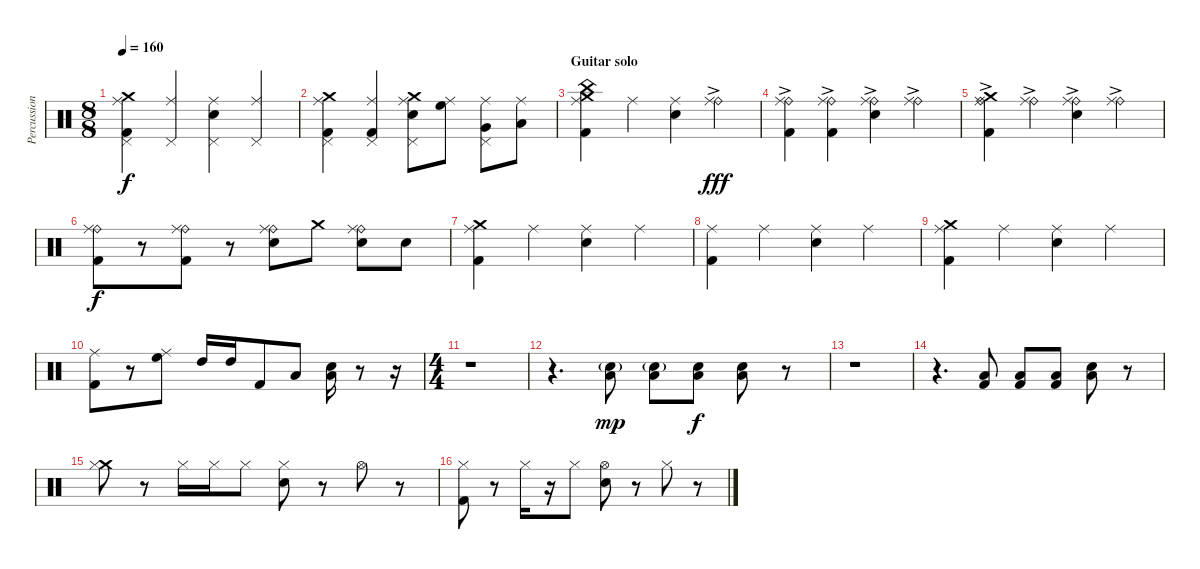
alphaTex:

\track ("Percussion" "Percussion") {instrument percussion}
\staff {score}
\articulation defaults
\ts (8 8)
\tempo 160
\clef neutral
\ks c
("Ride (middle)" "Kick (hit) 2" "Pedal Hi-Hat (hit)" "Crash medium (hit)").4{dy f} ("Ride (middle)" "Pedal Hi-Hat (hit)").4 ("Ride (middle)" "Electric Snare (hit)" "Pedal Hi-Hat (hit)").4 ("Ride (middle)" "Pedal Hi-Hat (hit)").4 |
("Ride (middle)" "Kick (hit) 2" "Pedal Hi-Hat (hit)" "Crash medium (hit)").4 ("Ride (middle)" "Kick (hit) 2" "Pedal Hi-Hat (hit)").4 ("Ride (middle)" "Electric Snare (hit)" "Pedal Hi-Hat (hit)" "Crash medium (hit)").8 ("Ride (middle)" "High Floor Tom (hit)").8 ("Ride (middle)" "Very Low Tom (hit)" "Pedal Hi-Hat (hit)").8 ("Ride (middle)" "Low Tom (hit)").8 |
\section ("" "Guitar solo")
("Kick (hit) 2" "Ride (middle)" "Crash medium (hit)" "China (hit)").4 "Ride (middle)".4 ("Electric Snare (hit)" "Ride (middle)").4 ("Ride (bell)"{ac} "Ride (middle)").4{dy fff} |
("Ride (bell)"{ac} "Kick (hit) 2" "Ride (middle)").4 ("Ride (bell)"{ac} "Kick (hit) 2" "Ride (middle)").4 ("Ride (bell)"{ac} "Electric Snare (hit)" "Ride (middle)").4 ("Ride (bell)"{ac} "Ride (middle)").4 |
("Ride (bell)"{ac} "Kick (hit) 2" "Ride (middle)" "Crash medium (hit)").4 ("Ride (bell)"{ac} "Ride (middle)").4 ("Ride (bell)"{ac} "Electric Snare (hit)" "Ride (middle)").4 ("Ride (bell)"{ac} "Ride (middle)").4 |
("Ride (bell)" "Kick (hit) 2" "Ride (middle)").8{dy f} r.8 ("Ride (bell)" "Kick (hit) 2" "Ride (middle)").8 r.8 ("Ride (bell)" "Electric Snare (hit)" "Ride (middle)").8 "Crash medium (hit)".8 ("Ride (bell)" "Electric Snare (hit)" "Ride (middle)").8 "Electric Snare (hit)".8 |
("Kick (hit) 2" "Ride (middle)" "Crash medium (hit)").4 "Ride (middle)".4 ("Electric Snare (hit)" "Ride (middle)").4 "Ride (middle)".4 |
("Kick (hit) 2" "Ride (middle)").4 "Ride (middle)".4 ("Electric Snare (hit)" "Ride (middle)").4 "Ride (middle)".4 |
("Kick (hit) 2" "Ride (middle)" "Crash medium (hit)").4 "Ride (middle)".4 ("Electric Snare (hit)" "Ride (middle)").4 "Ride (middle)".4 |
("Kick (hit) 2" "Ride (middle)").8 r.8 ("High Floor Tom (hit)" "Ride (middle)").8 "High Tom (hit)".16 "High Tom (hit)".16 "Kick (hit) 2".8 "Low Tom (hit)".8 ("Snare (hit) 2" "Low Tom (hit)").16 r.8 r.16 |
\ts (4 4)
r.1 |
r.4{d} ("Electric Snare (hit)"{g} "Low Tom (hit)").8{dy mp} ("Electric Snare (hit)"{g} "Low Tom (hit)").8 ("Electric Snare (hit)" "Low Tom (hit)").8{dy f} ("Snare (hit) 2" "Low Tom (hit)").8 r.8 |
r.1 |
r.4{d} ("Kick (hit) 2" "Low Tom (hit)").8 ("Kick (hit) 2" "Low Tom (hit)").8 ("Kick (hit) 2" "Low Tom (hit)").8 ("Electric Snare (hit)" "Low Tom (hit)").8 r.8 |
("Crash medium (hit)" "Hi-Hat (closed)").8 r.8 "Hi-Hat (closed)".16 "Hi-Hat (closed)".16 "Hi-Hat (closed)".8 ("Electric Snare (hit)" "Hi-Hat (closed)").8 r.8 "Hi-Hat (open)".8 r.8 |
("Hi-Hat (closed)" "Kick (hit) 2").8 r.8 "Hi-Hat (closed)".16 r.16 "Hi-Hat (closed)".8 ("Electric Snare (hit)" "Hi-Hat (open)").8 r.8 "Hi-Hat (closed)".8 r.8
